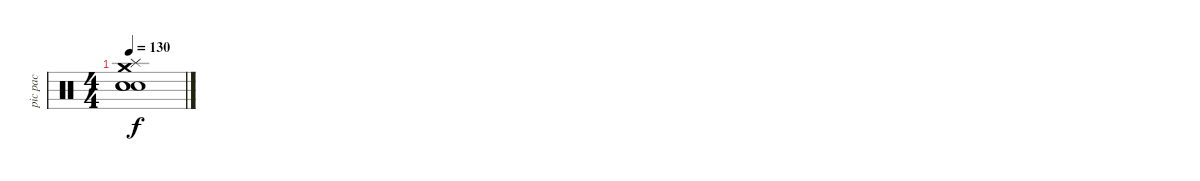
\track ("pic pac" "pic pac") {instrument percussion}
\staff {score}
\articulation defaults
\ts (4 4)
\tempo 130
\clef neutral
\ks c
("Snare (hit) 2" "Snare (hit) 2" "Snare (hit) 2" "Splash (hit)" "Crash medium (hit)" "Crash medium (hit)").1{dy f}
